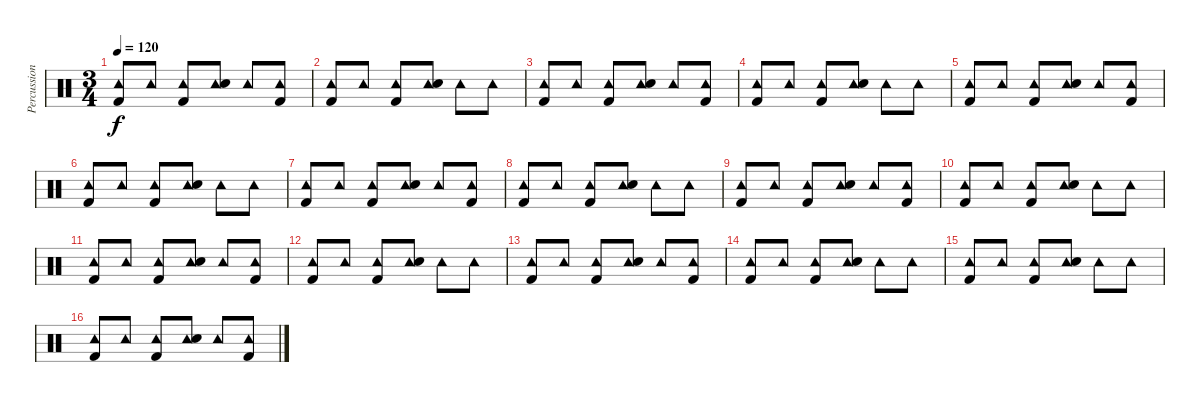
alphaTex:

\track ("Percussions" "Percussion") {instrument percussion}
\staff {score}
\articulation defaults
\ts (3 4)
\tempo 120
\clef neutral
\ks c
("Tambourine (hit)" "Kick (hit) 2").8{dy f} "Tambourine (hit)".8 ("Tambourine (hit)" "Kick (hit) 2").8 ("Tambourine (hit)" "Electric Snare (hit)").8 "Tambourine (hit)".8 ("Tambourine (hit)" "Kick (hit) 2").8 |
("Tambourine (hit)" "Kick (hit) 2").8 "Tambourine (hit)".8 ("Tambourine (hit)" "Kick (hit) 2").8 ("Tambourine (hit)" "Electric Snare (hit)").8 "Tambourine (hit)".8 "Tambourine (hit)".8 |
("Tambourine (hit)" "Kick (hit) 2").8 "Tambourine (hit)".8 ("Tambourine (hit)" "Kick (hit) 2").8 ("Tambourine (hit)" "Electric Snare (hit)").8 "Tambourine (hit)".8 ("Tambourine (hit)" "Kick (hit) 2").8 |
("Tambourine (hit)" "Kick (hit) 2").8 "Tambourine (hit)".8 ("Tambourine (hit)" "Kick (hit) 2").8 ("Tambourine (hit)" "Electric Snare (hit)").8 "Tambourine (hit)".8 "Tambourine (hit)".8 |
("Tambourine (hit)" "Kick (hit) 2").8 "Tambourine (hit)".8 ("Tambourine (hit)" "Kick (hit) 2").8 ("Tambourine (hit)" "Electric Snare (hit)").8 "Tambourine (hit)".8 ("Tambourine (hit)" "Kick (hit) 2").8 |
("Tambourine (hit)" "Kick (hit) 2").8 "Tambourine (hit)".8 ("Tambourine (hit)" "Kick (hit) 2").8 ("Tambourine (hit)" "Electric Snare (hit)").8 "Tambourine (hit)".8 "Tambourine (hit)".8 |
("Tambourine (hit)" "Kick (hit) 2").8 "Tambourine (hit)".8 ("Tambourine (hit)" "Kick (hit) 2").8 ("Tambourine (hit)" "Electric Snare (hit)").8 "Tambourine (hit)".8 ("Tambourine (hit)" "Kick (hit) 2").8 |
("Tambourine (hit)" "Kick (hit) 2").8 "Tambourine (hit)".8 ("Tambourine (hit)" "Kick (hit) 2").8 ("Tambourine (hit)" "Electric Snare (hit)").8 "Tambourine (hit)".8 "Tambourine (hit)".8 |
("Tambourine (hit)" "Kick (hit) 2").8 "Tambourine (hit)".8 ("Tambourine (hit)" "Kick (hit) 2").8 ("Tambourine (hit)" "Electric Snare (hit)").8 "Tambourine (hit)".8 ("Tambourine (hit)" "Kick (hit) 2").8 |
("Tambourine (hit)" "Kick (hit) 2").8 "Tambourine (hit)".8 ("Tambourine (hit)" "Kick (hit) 2").8 ("Tambourine (hit)" "Electric Snare (hit)").8 "Tambourine (hit)".8 "Tambourine (hit)".8 |
("Tambourine (hit)" "Kick (hit) 2").8 "Tambourine (hit)".8 ("Tambourine (hit)" "Kick (hit) 2").8 ("Tambourine (hit)" "Electric Snare (hit)").8 "Tambourine (hit)".8 ("Tambourine (hit)" "Kick (hit) 2").8 |
("Tambourine (hit)" "Kick (hit) 2").8 "Tambourine (hit)".8 ("Tambourine (hit)" "Kick (hit) 2").8 ("Tambourine (hit)" "Electric Snare (hit)").8 "Tambourine (hit)".8 "Tambourine (hit)".8 |
("Tambourine (hit)" "Kick (hit) 2").8 "Tambourine (hit)".8 ("Tambourine (hit)" "Kick (hit) 2").8 ("Tambourine (hit)" "Electric Snare (hit)").8 "Tambourine (hit)".8 ("Tambourine (hit)" "Kick (hit) 2").8 |
("Tambourine (hit)" "Kick (hit) 2").8 "Tambourine (hit)".8 ("Tambourine (hit)" "Kick (hit) 2").8 ("Tambourine (hit)" "Electric Snare (hit)").8 "Tambourine (hit)".8 "Tambourine (hit)".8 |
("Tambourine (hit)" "Kick (hit) 2").8 "Tambourine (hit)".8 ("Tambourine (hit)" "Kick (hit) 2").8 ("Tambourine (hit)" "Electric Snare (hit)").8 "Tambourine (hit)".8 "Tambourine (hit)".8 |
("Tambourine (hit)" "Kick (hit) 2").8 "Tambourine (hit)".8 ("Tambourine (hit)" "Kick (hit) 2").8 ("Tambourine (hit)" "Electric Snare (hit)").8 "Tambourine (hit)".8 ("Tambourine (hit)" "Kick (hit) 2").8
